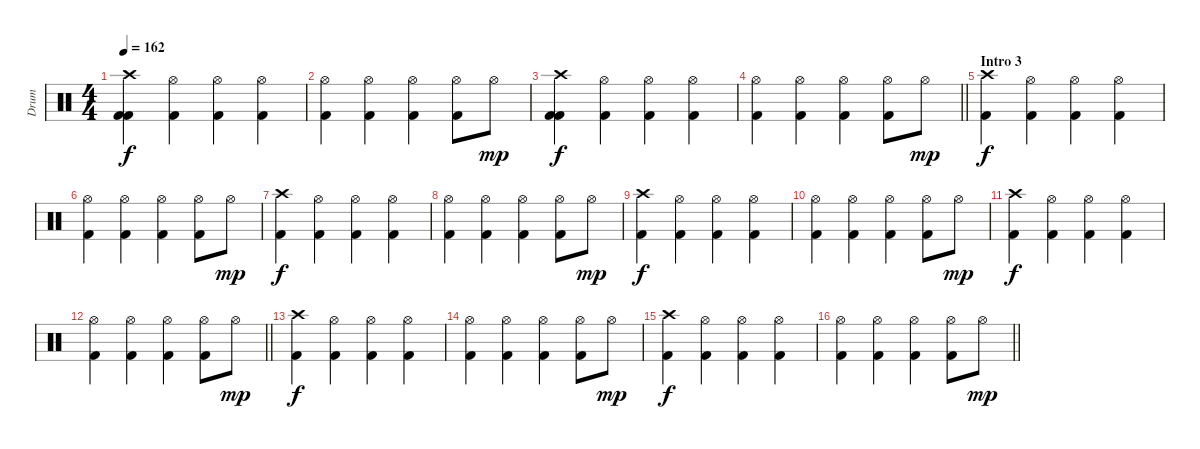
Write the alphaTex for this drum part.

\track ("Drum" "Drum") {instrument percussion}
\staff {score}
\articulation defaults
\ts (4 4)
\tempo 162
\clef neutral
\ks c
("Crash high (hit)" "Kick (hit) 2" "Kick (hit) 2").4{dy f} ("Hi-Hat (open)" "Kick (hit) 2").4 ("Hi-Hat (open)" "Kick (hit) 2").4 ("Hi-Hat (open)" "Kick (hit) 2").4 |
("Hi-Hat (open)" "Kick (hit) 2").4 ("Hi-Hat (open)" "Kick (hit) 2").4 ("Hi-Hat (open)" "Kick (hit) 2").4 ("Hi-Hat (open)" "Kick (hit) 2").8 "Hi-Hat (open)".8{dy mp} |
("Crash high (hit)" "Kick (hit) 2" "Kick (hit) 2").4{dy f} ("Hi-Hat (open)" "Kick (hit) 2").4 ("Hi-Hat (open)" "Kick (hit) 2").4 ("Hi-Hat (open)" "Kick (hit) 2").4 |
\barLineRight lightlight
("Hi-Hat (open)" "Kick (hit) 2").4 ("Hi-Hat (open)" "Kick (hit) 2").4 ("Hi-Hat (open)" "Kick (hit) 2").4 ("Hi-Hat (open)" "Kick (hit) 2").8 "Hi-Hat (open)".8{dy mp} |
\section ("" "Intro 3")
("Crash high (hit)" "Kick (hit) 2").4{dy f} ("Hi-Hat (open)" "Kick (hit) 2").4 ("Hi-Hat (open)" "Kick (hit) 2").4 ("Hi-Hat (open)" "Kick (hit) 2").4 |
("Hi-Hat (open)" "Kick (hit) 2").4 ("Hi-Hat (open)" "Kick (hit) 2").4 ("Hi-Hat (open)" "Kick (hit) 2").4 ("Hi-Hat (open)" "Kick (hit) 2").8 "Hi-Hat (open)".8{dy mp} |
("Crash high (hit)" "Kick (hit) 2").4{dy f} ("Hi-Hat (open)" "Kick (hit) 2").4 ("Hi-Hat (open)" "Kick (hit) 2").4 ("Hi-Hat (open)" "Kick (hit) 2").4 |
("Hi-Hat (open)" "Kick (hit) 2").4 ("Hi-Hat (open)" "Kick (hit) 2").4 ("Hi-Hat (open)" "Kick (hit) 2").4 ("Hi-Hat (open)" "Kick (hit) 2").8 "Hi-Hat (open)".8{dy mp} |
("Crash high (hit)" "Kick (hit) 2").4{dy f} ("Hi-Hat (open)" "Kick (hit) 2").4 ("Hi-Hat (open)" "Kick (hit) 2").4 ("Hi-Hat (open)" "Kick (hit) 2").4 |
("Hi-Hat (open)" "Kick (hit) 2").4 ("Hi-Hat (open)" "Kick (hit) 2").4 ("Hi-Hat (open)" "Kick (hit) 2").4 ("Hi-Hat (open)" "Kick (hit) 2").8 "Hi-Hat (open)".8{dy mp} |
("Crash high (hit)" "Kick (hit) 2").4{dy f} ("Hi-Hat (open)" "Kick (hit) 2").4 ("Hi-Hat (open)" "Kick (hit) 2").4 ("Hi-Hat (open)" "Kick (hit) 2").4 |
\barLineRight lightlight
("Hi-Hat (open)" "Kick (hit) 2").4 ("Hi-Hat (open)" "Kick (hit) 2").4 ("Hi-Hat (open)" "Kick (hit) 2").4 ("Hi-Hat (open)" "Kick (hit) 2").8 "Hi-Hat (open)".8{dy mp} |
\section ("" "")
("Crash high (hit)" "Kick (hit) 2").4{dy f} ("Hi-Hat (open)" "Kick (hit) 2").4 ("Hi-Hat (open)" "Kick (hit) 2").4 ("Hi-Hat (open)" "Kick (hit) 2").4 |
("Hi-Hat (open)" "Kick (hit) 2").4 ("Hi-Hat (open)" "Kick (hit) 2").4 ("Hi-Hat (open)" "Kick (hit) 2").4 ("Hi-Hat (open)" "Kick (hit) 2").8 "Hi-Hat (open)".8{dy mp} |
("Crash high (hit)" "Kick (hit) 2").4{dy f} ("Hi-Hat (open)" "Kick (hit) 2").4 ("Hi-Hat (open)" "Kick (hit) 2").4 ("Hi-Hat (open)" "Kick (hit) 2").4 |
\barLineRight lightlight
("Hi-Hat (open)" "Kick (hit) 2").4 ("Hi-Hat (open)" "Kick (hit) 2").4 ("Hi-Hat (open)" "Kick (hit) 2").4 ("Hi-Hat (open)" "Kick (hit) 2").8 "Hi-Hat (open)".8{dy mp}
